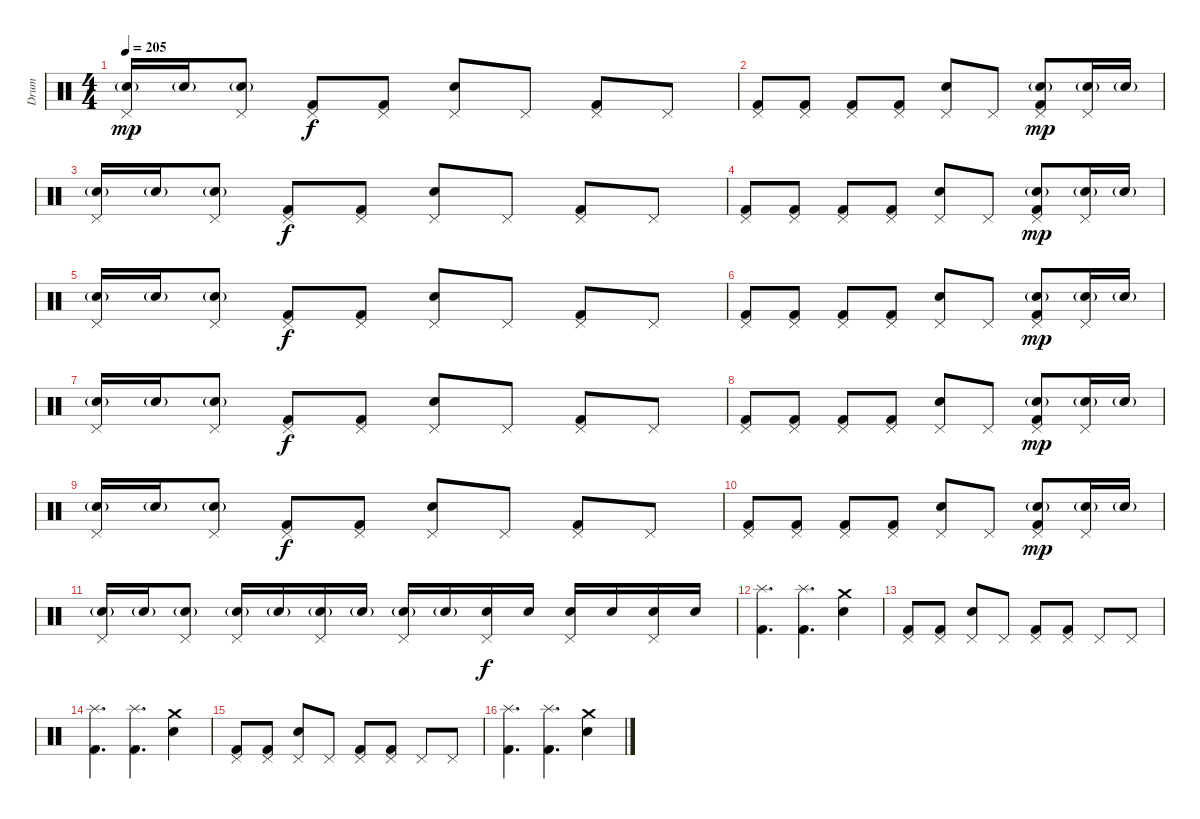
\track ("Drum" "Drum") {instrument percussion}
\staff {score}
\articulation defaults
\ts (4 4)
\tempo 205
\clef neutral
\ks c
("Pedal Hi-Hat (hit)" "Snare (hit) 2"{g}).16{dy mp} "Snare (hit) 2"{g}.16 ("Pedal Hi-Hat (hit)" "Snare (hit) 2"{g}).8 ("Pedal Hi-Hat (hit)" "Kick (hit) 2").8{dy f} ("Pedal Hi-Hat (hit)" "Kick (hit) 2").8 ("Pedal Hi-Hat (hit)" "Snare (hit) 2").8 "Pedal Hi-Hat (hit)".8 ("Pedal Hi-Hat (hit)" "Kick (hit) 2").8 "Pedal Hi-Hat (hit)".8 |
("Pedal Hi-Hat (hit)" "Kick (hit) 2").8 ("Pedal Hi-Hat (hit)" "Kick (hit) 2").8 ("Pedal Hi-Hat (hit)" "Kick (hit) 2").8 ("Pedal Hi-Hat (hit)" "Kick (hit) 2").8 ("Pedal Hi-Hat (hit)" "Snare (hit) 2").8 "Pedal Hi-Hat (hit)".8 ("Pedal Hi-Hat (hit)" "Snare (hit) 2"{g} "Kick (hit) 2").8{dy mp} ("Pedal Hi-Hat (hit)" "Snare (hit) 2"{g}).16 "Snare (hit) 2"{g}.16 |
("Pedal Hi-Hat (hit)" "Snare (hit) 2"{g}).16 "Snare (hit) 2"{g}.16 ("Pedal Hi-Hat (hit)" "Snare (hit) 2"{g}).8 ("Pedal Hi-Hat (hit)" "Kick (hit) 2").8{dy f} ("Pedal Hi-Hat (hit)" "Kick (hit) 2").8 ("Pedal Hi-Hat (hit)" "Snare (hit) 2").8 "Pedal Hi-Hat (hit)".8 ("Pedal Hi-Hat (hit)" "Kick (hit) 2").8 "Pedal Hi-Hat (hit)".8 |
("Pedal Hi-Hat (hit)" "Kick (hit) 2").8 ("Pedal Hi-Hat (hit)" "Kick (hit) 2").8 ("Pedal Hi-Hat (hit)" "Kick (hit) 2").8 ("Pedal Hi-Hat (hit)" "Kick (hit) 2").8 ("Pedal Hi-Hat (hit)" "Snare (hit) 2").8 "Pedal Hi-Hat (hit)".8 ("Pedal Hi-Hat (hit)" "Snare (hit) 2"{g} "Kick (hit) 2").8{dy mp} ("Pedal Hi-Hat (hit)" "Snare (hit) 2"{g}).16 "Snare (hit) 2"{g}.16 |
("Pedal Hi-Hat (hit)" "Snare (hit) 2"{g}).16 "Snare (hit) 2"{g}.16 ("Pedal Hi-Hat (hit)" "Snare (hit) 2"{g}).8 ("Pedal Hi-Hat (hit)" "Kick (hit) 2").8{dy f} ("Pedal Hi-Hat (hit)" "Kick (hit) 2").8 ("Pedal Hi-Hat (hit)" "Snare (hit) 2").8 "Pedal Hi-Hat (hit)".8 ("Pedal Hi-Hat (hit)" "Kick (hit) 2").8 "Pedal Hi-Hat (hit)".8 |
("Pedal Hi-Hat (hit)" "Kick (hit) 2").8 ("Pedal Hi-Hat (hit)" "Kick (hit) 2").8 ("Pedal Hi-Hat (hit)" "Kick (hit) 2").8 ("Pedal Hi-Hat (hit)" "Kick (hit) 2").8 ("Pedal Hi-Hat (hit)" "Snare (hit) 2").8 "Pedal Hi-Hat (hit)".8 ("Pedal Hi-Hat (hit)" "Snare (hit) 2"{g} "Kick (hit) 2").8{dy mp} ("Pedal Hi-Hat (hit)" "Snare (hit) 2"{g}).16 "Snare (hit) 2"{g}.16 |
("Pedal Hi-Hat (hit)" "Snare (hit) 2"{g}).16 "Snare (hit) 2"{g}.16 ("Pedal Hi-Hat (hit)" "Snare (hit) 2"{g}).8 ("Pedal Hi-Hat (hit)" "Kick (hit) 2").8{dy f} ("Pedal Hi-Hat (hit)" "Kick (hit) 2").8 ("Pedal Hi-Hat (hit)" "Snare (hit) 2").8 "Pedal Hi-Hat (hit)".8 ("Pedal Hi-Hat (hit)" "Kick (hit) 2").8 "Pedal Hi-Hat (hit)".8 |
("Pedal Hi-Hat (hit)" "Kick (hit) 2").8 ("Pedal Hi-Hat (hit)" "Kick (hit) 2").8 ("Pedal Hi-Hat (hit)" "Kick (hit) 2").8 ("Pedal Hi-Hat (hit)" "Kick (hit) 2").8 ("Pedal Hi-Hat (hit)" "Snare (hit) 2").8 "Pedal Hi-Hat (hit)".8 ("Pedal Hi-Hat (hit)" "Snare (hit) 2"{g} "Kick (hit) 2").8{dy mp} ("Pedal Hi-Hat (hit)" "Snare (hit) 2"{g}).16 "Snare (hit) 2"{g}.16 |
("Pedal Hi-Hat (hit)" "Snare (hit) 2"{g}).16 "Snare (hit) 2"{g}.16 ("Pedal Hi-Hat (hit)" "Snare (hit) 2"{g}).8 ("Pedal Hi-Hat (hit)" "Kick (hit) 2").8{dy f} ("Pedal Hi-Hat (hit)" "Kick (hit) 2").8 ("Pedal Hi-Hat (hit)" "Snare (hit) 2").8 "Pedal Hi-Hat (hit)".8 ("Pedal Hi-Hat (hit)" "Kick (hit) 2").8 "Pedal Hi-Hat (hit)".8 |
("Pedal Hi-Hat (hit)" "Kick (hit) 2").8 ("Pedal Hi-Hat (hit)" "Kick (hit) 2").8 ("Pedal Hi-Hat (hit)" "Kick (hit) 2").8 ("Pedal Hi-Hat (hit)" "Kick (hit) 2").8 ("Pedal Hi-Hat (hit)" "Snare (hit) 2").8 "Pedal Hi-Hat (hit)".8 ("Pedal Hi-Hat (hit)" "Snare (hit) 2"{g} "Kick (hit) 2").8{dy mp} ("Pedal Hi-Hat (hit)" "Snare (hit) 2"{g}).16 "Snare (hit) 2"{g}.16 |
("Pedal Hi-Hat (hit)" "Snare (hit) 2"{g}).16 "Snare (hit) 2"{g}.16 ("Pedal Hi-Hat (hit)" "Snare (hit) 2"{g}).8 ("Pedal Hi-Hat (hit)" "Snare (hit) 2"{g}).16 "Snare (hit) 2"{g}.16 ("Pedal Hi-Hat (hit)" "Snare (hit) 2"{g}).16 "Snare (hit) 2"{g}.16 ("Pedal Hi-Hat (hit)" "Snare (hit) 2"{g}).16 "Snare (hit) 2"{g}.16 ("Pedal Hi-Hat (hit)" "Snare (hit) 2").16{dy f} "Snare (hit) 2".16 ("Pedal Hi-Hat (hit)" "Snare (hit) 2").16 "Snare (hit) 2".16 ("Pedal Hi-Hat (hit)" "Snare (hit) 2").16 "Snare (hit) 2".16 |
("Splash (hit)" "Kick (hit) 2").4{d} ("Splash (hit)" "Kick (hit) 2").4{d} ("Crash medium (hit)" "Snare (hit) 2").4 |
("Pedal Hi-Hat (hit)" "Kick (hit) 2").8 ("Pedal Hi-Hat (hit)" "Kick (hit) 2").8 ("Pedal Hi-Hat (hit)" "Snare (hit) 2").8 "Pedal Hi-Hat (hit)".8 ("Pedal Hi-Hat (hit)" "Kick (hit) 2").8 ("Pedal Hi-Hat (hit)" "Kick (hit) 2").8 "Pedal Hi-Hat (hit)".8 "Pedal Hi-Hat (hit)".8 |
("Splash (hit)" "Kick (hit) 2").4{d} ("Splash (hit)" "Kick (hit) 2").4{d} ("Crash medium (hit)" "Snare (hit) 2").4 |
("Pedal Hi-Hat (hit)" "Kick (hit) 2").8 ("Pedal Hi-Hat (hit)" "Kick (hit) 2").8 ("Pedal Hi-Hat (hit)" "Snare (hit) 2").8 "Pedal Hi-Hat (hit)".8 ("Pedal Hi-Hat (hit)" "Kick (hit) 2").8 ("Pedal Hi-Hat (hit)" "Kick (hit) 2").8 "Pedal Hi-Hat (hit)".8 "Pedal Hi-Hat (hit)".8 |
("Splash (hit)" "Kick (hit) 2").4{d} ("Splash (hit)" "Kick (hit) 2").4{d} ("Crash medium (hit)" "Snare (hit) 2").4
